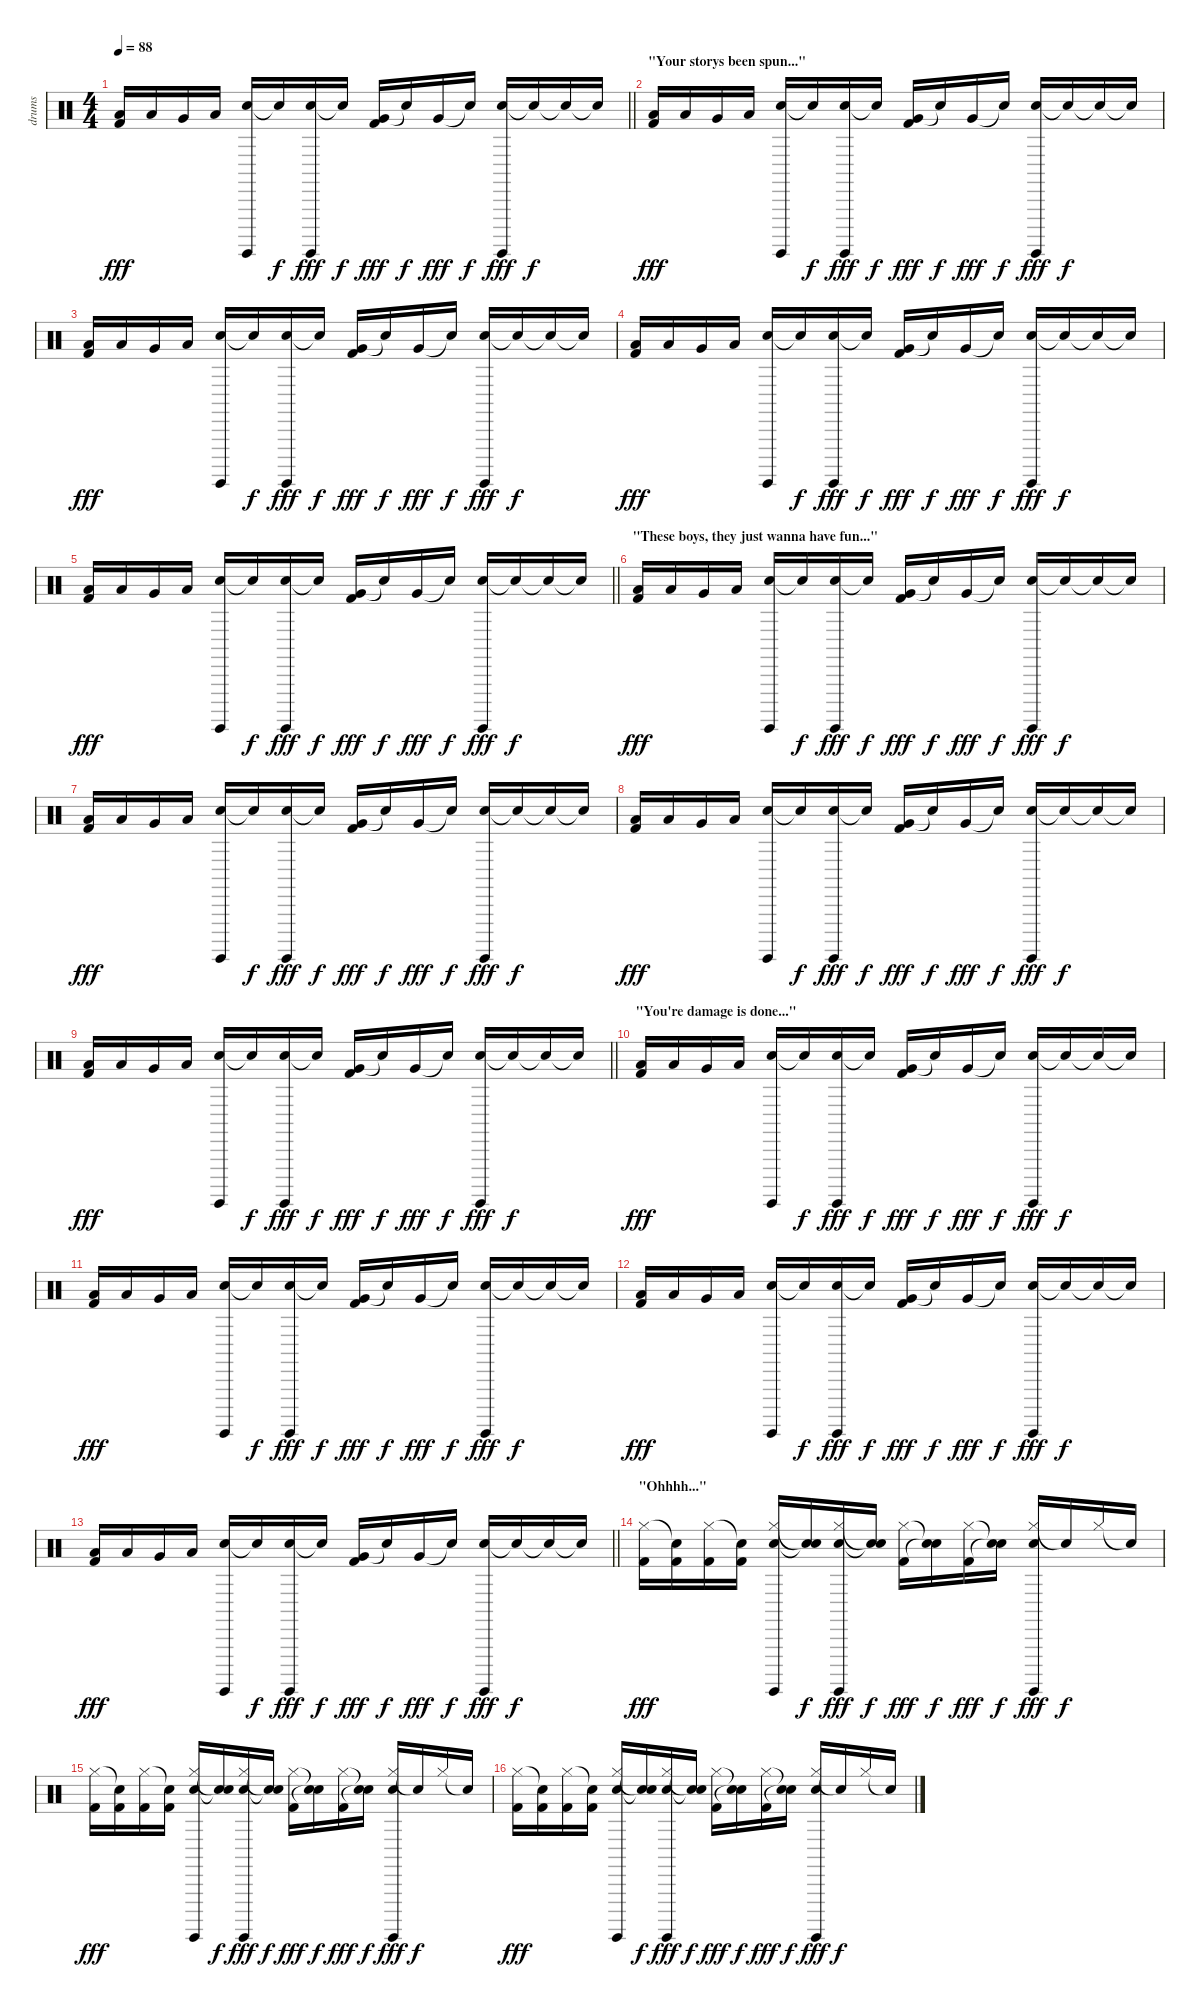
\track ("drums" "drums") {instrument percussion}
\staff {score}
\articulation defaults
\ts (4 4)
\tempo 88
\clef neutral
\barLineRight lightlight
\ks c
("Low Tom (hit)" "Kick (hit) 2").16{dy fff} "Low Tom (hit)".16 "Very Low Tom (hit)".16 "Low Tom (hit)".16 ("Electric Snare (hit)" "Surdo (hit)").16 "Snare (hit)"{t}.16{dy f} ("Electric Snare (hit)" "Surdo (hit)").16{dy fff} "Snare (hit)"{t}.16{dy f} ("Very Low Tom (hit)" "Kick (hit) 2").16{dy fff} "Snare (hit)"{t}.16{dy f} "Very Low Tom (hit)".16{dy fff} "Snare (hit)"{t}.16{dy f} ("Electric Snare (hit)" "Surdo (hit)").16{dy fff} "Snare (hit)"{t}.16{dy f} "Snare (hit)"{t}.16 "Snare (hit)"{t}.16 |
\section ("" "\"Your storys been spun...\"")
("Low Tom (hit)" "Kick (hit) 2").16{dy fff} "Low Tom (hit)".16 "Very Low Tom (hit)".16 "Low Tom (hit)".16 ("Electric Snare (hit)" "Surdo (hit)").16 "Snare (hit)"{t}.16{dy f} ("Electric Snare (hit)" "Surdo (hit)").16{dy fff} "Snare (hit)"{t}.16{dy f} ("Very Low Tom (hit)" "Kick (hit) 2").16{dy fff} "Snare (hit)"{t}.16{dy f} "Very Low Tom (hit)".16{dy fff} "Snare (hit)"{t}.16{dy f} ("Electric Snare (hit)" "Surdo (hit)").16{dy fff} "Snare (hit)"{t}.16{dy f} "Snare (hit)"{t}.16 "Snare (hit)"{t}.16 |
("Low Tom (hit)" "Kick (hit) 2").16{dy fff} "Low Tom (hit)".16 "Very Low Tom (hit)".16 "Low Tom (hit)".16 ("Electric Snare (hit)" "Surdo (hit)").16 "Snare (hit)"{t}.16{dy f} ("Electric Snare (hit)" "Surdo (hit)").16{dy fff} "Snare (hit)"{t}.16{dy f} ("Very Low Tom (hit)" "Kick (hit) 2").16{dy fff} "Snare (hit)"{t}.16{dy f} "Very Low Tom (hit)".16{dy fff} "Snare (hit)"{t}.16{dy f} ("Electric Snare (hit)" "Surdo (hit)").16{dy fff} "Snare (hit)"{t}.16{dy f} "Snare (hit)"{t}.16 "Snare (hit)"{t}.16 |
("Low Tom (hit)" "Kick (hit) 2").16{dy fff} "Low Tom (hit)".16 "Very Low Tom (hit)".16 "Low Tom (hit)".16 ("Electric Snare (hit)" "Surdo (hit)").16 "Snare (hit)"{t}.16{dy f} ("Electric Snare (hit)" "Surdo (hit)").16{dy fff} "Snare (hit)"{t}.16{dy f} ("Very Low Tom (hit)" "Kick (hit) 2").16{dy fff} "Snare (hit)"{t}.16{dy f} "Very Low Tom (hit)".16{dy fff} "Snare (hit)"{t}.16{dy f} ("Electric Snare (hit)" "Surdo (hit)").16{dy fff} "Snare (hit)"{t}.16{dy f} "Snare (hit)"{t}.16 "Snare (hit)"{t}.16 |
\barLineRight lightlight
("Low Tom (hit)" "Kick (hit) 2").16{dy fff} "Low Tom (hit)".16 "Very Low Tom (hit)".16 "Low Tom (hit)".16 ("Electric Snare (hit)" "Surdo (hit)").16 "Snare (hit)"{t}.16{dy f} ("Electric Snare (hit)" "Surdo (hit)").16{dy fff} "Snare (hit)"{t}.16{dy f} ("Very Low Tom (hit)" "Kick (hit) 2").16{dy fff} "Snare (hit)"{t}.16{dy f} "Very Low Tom (hit)".16{dy fff} "Snare (hit)"{t}.16{dy f} ("Electric Snare (hit)" "Surdo (hit)").16{dy fff} "Snare (hit)"{t}.16{dy f} "Snare (hit)"{t}.16 "Snare (hit)"{t}.16 |
\section ("" "\"These boys, they just wanna have fun...\"")
("Low Tom (hit)" "Kick (hit) 2").16{dy fff} "Low Tom (hit)".16 "Very Low Tom (hit)".16 "Low Tom (hit)".16 ("Electric Snare (hit)" "Surdo (hit)").16 "Snare (hit)"{t}.16{dy f} ("Electric Snare (hit)" "Surdo (hit)").16{dy fff} "Snare (hit)"{t}.16{dy f} ("Very Low Tom (hit)" "Kick (hit) 2").16{dy fff} "Snare (hit)"{t}.16{dy f} "Very Low Tom (hit)".16{dy fff} "Snare (hit)"{t}.16{dy f} ("Electric Snare (hit)" "Surdo (hit)").16{dy fff} "Snare (hit)"{t}.16{dy f} "Snare (hit)"{t}.16 "Snare (hit)"{t}.16 |
("Low Tom (hit)" "Kick (hit) 2").16{dy fff} "Low Tom (hit)".16 "Very Low Tom (hit)".16 "Low Tom (hit)".16 ("Electric Snare (hit)" "Surdo (hit)").16 "Snare (hit)"{t}.16{dy f} ("Electric Snare (hit)" "Surdo (hit)").16{dy fff} "Snare (hit)"{t}.16{dy f} ("Very Low Tom (hit)" "Kick (hit) 2").16{dy fff} "Snare (hit)"{t}.16{dy f} "Very Low Tom (hit)".16{dy fff} "Snare (hit)"{t}.16{dy f} ("Electric Snare (hit)" "Surdo (hit)").16{dy fff} "Snare (hit)"{t}.16{dy f} "Snare (hit)"{t}.16 "Snare (hit)"{t}.16 |
("Low Tom (hit)" "Kick (hit) 2").16{dy fff} "Low Tom (hit)".16 "Very Low Tom (hit)".16 "Low Tom (hit)".16 ("Electric Snare (hit)" "Surdo (hit)").16 "Snare (hit)"{t}.16{dy f} ("Electric Snare (hit)" "Surdo (hit)").16{dy fff} "Snare (hit)"{t}.16{dy f} ("Very Low Tom (hit)" "Kick (hit) 2").16{dy fff} "Snare (hit)"{t}.16{dy f} "Very Low Tom (hit)".16{dy fff} "Snare (hit)"{t}.16{dy f} ("Electric Snare (hit)" "Surdo (hit)").16{dy fff} "Snare (hit)"{t}.16{dy f} "Snare (hit)"{t}.16 "Snare (hit)"{t}.16 |
\barLineRight lightlight
("Low Tom (hit)" "Kick (hit) 2").16{dy fff} "Low Tom (hit)".16 "Very Low Tom (hit)".16 "Low Tom (hit)".16 ("Electric Snare (hit)" "Surdo (hit)").16 "Snare (hit)"{t}.16{dy f} ("Electric Snare (hit)" "Surdo (hit)").16{dy fff} "Snare (hit)"{t}.16{dy f} ("Very Low Tom (hit)" "Kick (hit) 2").16{dy fff} "Snare (hit)"{t}.16{dy f} "Very Low Tom (hit)".16{dy fff} "Snare (hit)"{t}.16{dy f} ("Electric Snare (hit)" "Surdo (hit)").16{dy fff} "Snare (hit)"{t}.16{dy f} "Snare (hit)"{t}.16 "Snare (hit)"{t}.16 |
\section ("" "\"You're damage is done...\"")
("Low Tom (hit)" "Kick (hit) 2").16{dy fff} "Low Tom (hit)".16 "Very Low Tom (hit)".16 "Low Tom (hit)".16 ("Electric Snare (hit)" "Surdo (hit)").16 "Snare (hit)"{t}.16{dy f} ("Electric Snare (hit)" "Surdo (hit)").16{dy fff} "Snare (hit)"{t}.16{dy f} ("Very Low Tom (hit)" "Kick (hit) 2").16{dy fff} "Snare (hit)"{t}.16{dy f} "Very Low Tom (hit)".16{dy fff} "Snare (hit)"{t}.16{dy f} ("Electric Snare (hit)" "Surdo (hit)").16{dy fff} "Snare (hit)"{t}.16{dy f} "Snare (hit)"{t}.16 "Snare (hit)"{t}.16 |
("Low Tom (hit)" "Kick (hit) 2").16{dy fff} "Low Tom (hit)".16 "Very Low Tom (hit)".16 "Low Tom (hit)".16 ("Electric Snare (hit)" "Surdo (hit)").16 "Snare (hit)"{t}.16{dy f} ("Electric Snare (hit)" "Surdo (hit)").16{dy fff} "Snare (hit)"{t}.16{dy f} ("Very Low Tom (hit)" "Kick (hit) 2").16{dy fff} "Snare (hit)"{t}.16{dy f} "Very Low Tom (hit)".16{dy fff} "Snare (hit)"{t}.16{dy f} ("Electric Snare (hit)" "Surdo (hit)").16{dy fff} "Snare (hit)"{t}.16{dy f} "Snare (hit)"{t}.16 "Snare (hit)"{t}.16 |
("Low Tom (hit)" "Kick (hit) 2").16{dy fff} "Low Tom (hit)".16 "Very Low Tom (hit)".16 "Low Tom (hit)".16 ("Electric Snare (hit)" "Surdo (hit)").16 "Snare (hit)"{t}.16{dy f} ("Electric Snare (hit)" "Surdo (hit)").16{dy fff} "Snare (hit)"{t}.16{dy f} ("Very Low Tom (hit)" "Kick (hit) 2").16{dy fff} "Snare (hit)"{t}.16{dy f} "Very Low Tom (hit)".16{dy fff} "Snare (hit)"{t}.16{dy f} ("Electric Snare (hit)" "Surdo (hit)").16{dy fff} "Snare (hit)"{t}.16{dy f} "Snare (hit)"{t}.16 "Snare (hit)"{t}.16 |
\barLineRight lightlight
("Low Tom (hit)" "Kick (hit) 2").16{dy fff} "Low Tom (hit)".16 "Very Low Tom (hit)".16 "Low Tom (hit)".16 ("Electric Snare (hit)" "Surdo (hit)").16 "Snare (hit)"{t}.16{dy f} ("Electric Snare (hit)" "Surdo (hit)").16{dy fff} "Snare (hit)"{t}.16{dy f} ("Very Low Tom (hit)" "Kick (hit) 2").16{dy fff} "Snare (hit)"{t}.16{dy f} "Very Low Tom (hit)".16{dy fff} "Snare (hit)"{t}.16{dy f} ("Electric Snare (hit)" "Surdo (hit)").16{dy fff} "Snare (hit)"{t}.16{dy f} "Snare (hit)"{t}.16 "Snare (hit)"{t}.16 |
\section ("" "\"Ohhhh...\"")
("Hi-Hat (closed)" "Kick (hit) 2").16{dy fff} ("Snare (hit)"{t} "Kick (hit) 2").16 ("Hi-Hat (closed)" "Kick (hit) 2").16 ("Snare (hit)"{t} "Kick (hit) 2").16 ("Hi-Hat (closed)" "Snare (hit) 2" "Surdo (hit)").16 ("Snare (hit)"{t} "Snare (hit)"{t}).16{dy f} ("Hi-Hat (closed)" "Snare (hit) 2" "Surdo (hit)").16{dy fff} ("Snare (hit)"{t} "Snare (hit)"{t}).16{dy f} ("Hi-Hat (closed)" "Kick (hit) 2").16{dy fff} ("Snare (hit)"{t} "Snare (hit)"{t}).16{dy f} ("Hi-Hat (closed)" "Kick (hit) 2").16{dy fff} ("Snare (hit)"{t} "Snare (hit)"{t}).16{dy f} ("Hi-Hat (closed)" "Snare (hit) 2" "Surdo (hit)").16{dy fff} "Snare (hit)"{t}.16{dy f} "Hi-Hat (closed)".16 "Snare (hit)"{t}.16 |
("Hi-Hat (closed)" "Kick (hit) 2").16{dy fff} ("Snare (hit)"{t} "Kick (hit) 2").16 ("Hi-Hat (closed)" "Kick (hit) 2").16 ("Snare (hit)"{t} "Kick (hit) 2").16 ("Hi-Hat (closed)" "Snare (hit) 2" "Surdo (hit)").16 ("Snare (hit)"{t} "Snare (hit)"{t}).16{dy f} ("Hi-Hat (closed)" "Snare (hit) 2" "Surdo (hit)").16{dy fff} ("Snare (hit)"{t} "Snare (hit)"{t}).16{dy f} ("Hi-Hat (closed)" "Kick (hit) 2").16{dy fff} ("Snare (hit)"{t} "Snare (hit)"{t}).16{dy f} ("Hi-Hat (closed)" "Kick (hit) 2").16{dy fff} ("Snare (hit)"{t} "Snare (hit)"{t}).16{dy f} ("Hi-Hat (closed)" "Snare (hit) 2" "Surdo (hit)").16{dy fff} "Snare (hit)"{t}.16{dy f} "Hi-Hat (closed)".16 "Snare (hit)"{t}.16 |
("Hi-Hat (closed)" "Kick (hit) 2").16{dy fff} ("Snare (hit)"{t} "Kick (hit) 2").16 ("Hi-Hat (closed)" "Kick (hit) 2").16 ("Snare (hit)"{t} "Kick (hit) 2").16 ("Hi-Hat (closed)" "Snare (hit) 2" "Surdo (hit)").16 ("Snare (hit)"{t} "Snare (hit)"{t}).16{dy f} ("Hi-Hat (closed)" "Snare (hit) 2" "Surdo (hit)").16{dy fff} ("Snare (hit)"{t} "Snare (hit)"{t}).16{dy f} ("Hi-Hat (closed)" "Kick (hit) 2").16{dy fff} ("Snare (hit)"{t} "Snare (hit)"{t}).16{dy f} ("Hi-Hat (closed)" "Kick (hit) 2").16{dy fff} ("Snare (hit)"{t} "Snare (hit)"{t}).16{dy f} ("Hi-Hat (closed)" "Snare (hit) 2" "Surdo (hit)").16{dy fff} "Snare (hit)"{t}.16{dy f} "Hi-Hat (closed)".16 "Snare (hit)"{t}.16
